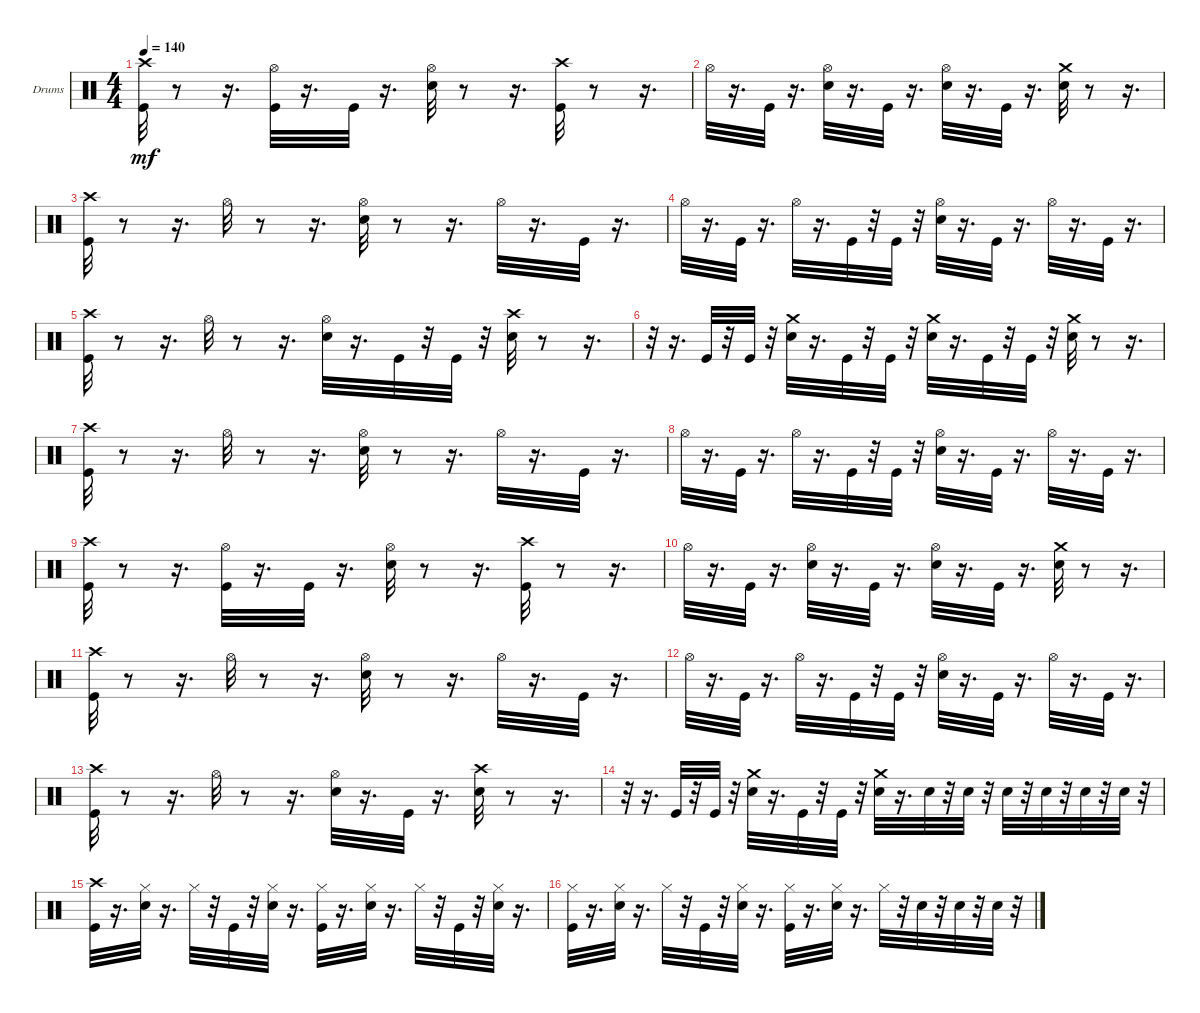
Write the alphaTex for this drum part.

\bracketExtendMode groupsimilarinstruments
\firstSystemTrackNameOrientation horizontal
\otherSystemsTrackNameOrientation horizontal
\track ("" "Drums") {instrument percussion}
\staff {score}
\articulation defaults
\ts (4 4)
\tempo 140
\clef neutral
\ks c
("Crash high (hit)" "Kick (hit)").32{dy mf} r.8 r.16{d} ("Kick (hit)" "Hi-Hat (open)").32 r.16{d} "Kick (hit)".32 r.16{d} ("Hi-Hat (open)" "Snare (hit) 2").32 r.8 r.16{d} ("Crash high (hit)" "Kick (hit)").32 r.8 r.16{d} |
"Hi-Hat (open)".32 r.16{d} "Kick (hit)".32 r.16{d} ("Snare (hit) 2" "Hi-Hat (open)").32 r.16{d} "Kick (hit)".32 r.16{d} ("Hi-Hat (open)" "Snare (hit) 2").32 r.16{d} "Kick (hit)".32 r.16{d} ("Crash medium (hit)" "Snare (hit) 2").32 r.8 r.16{d} |
("Crash high (hit)" "Kick (hit)").32 r.8 r.16{d} "Hi-Hat (open)".32 r.8 r.16{d} ("Hi-Hat (open)" "Snare (hit) 2").32 r.8 r.16{d} "Hi-Hat (open)".32 r.16{d} "Kick (hit)".32 r.16{d} |
"Hi-Hat (open)".32 r.16{d} "Kick (hit)".32 r.16{d} "Hi-Hat (open)".32 r.16{d} "Kick (hit)".32 r.32 "Kick (hit)".32 r.32 ("Hi-Hat (open)" "Snare (hit) 2").32 r.16{d} "Kick (hit)".32 r.16{d} "Hi-Hat (open)".32 r.16{d} "Kick (hit)".32 r.16{d} |
("Crash high (hit)" "Kick (hit)").32 r.8 r.16{d} "Hi-Hat (open)".32 r.8 r.16{d} ("Hi-Hat (open)" "Snare (hit) 2").32 r.16{d} "Kick (hit)".32 r.32 "Kick (hit)".32 r.32 ("Crash high (hit)" "Snare (hit) 2").32 r.8 r.16{d} |
r.32 r.16{d} "Kick (hit)".32 r.32 "Kick (hit)".32 r.32 ("Crash medium (hit)" "Snare (hit) 2").32 r.16{d} "Kick (hit)".32 r.32 "Kick (hit)".32 r.32 ("Crash medium (hit)" "Snare (hit) 2").32 r.16{d} "Kick (hit)".32 r.32 "Kick (hit)".32 r.32 ("Crash medium (hit)" "Snare (hit) 2").32 r.8 r.16{d} |
("Crash high (hit)" "Kick (hit)").32 r.8 r.16{d} "Hi-Hat (open)".32 r.8 r.16{d} ("Hi-Hat (open)" "Snare (hit) 2").32 r.8 r.16{d} "Hi-Hat (open)".32 r.16{d} "Kick (hit)".32 r.16{d} |
"Hi-Hat (open)".32 r.16{d} "Kick (hit)".32 r.16{d} "Hi-Hat (open)".32 r.16{d} "Kick (hit)".32 r.32 "Kick (hit)".32 r.32 ("Hi-Hat (open)" "Snare (hit) 2").32 r.16{d} "Kick (hit)".32 r.16{d} "Hi-Hat (open)".32 r.16{d} "Kick (hit)".32 r.16{d} |
("Crash high (hit)" "Kick (hit)").32 r.8 r.16{d} ("Kick (hit)" "Hi-Hat (open)").32 r.16{d} "Kick (hit)".32 r.16{d} ("Hi-Hat (open)" "Snare (hit) 2").32 r.8 r.16{d} ("Crash high (hit)" "Kick (hit)").32 r.8 r.16{d} |
"Hi-Hat (open)".32 r.16{d} "Kick (hit)".32 r.16{d} ("Snare (hit) 2" "Hi-Hat (open)").32 r.16{d} "Kick (hit)".32 r.16{d} ("Hi-Hat (open)" "Snare (hit) 2").32 r.16{d} "Kick (hit)".32 r.16{d} ("Crash medium (hit)" "Snare (hit) 2").32 r.8 r.16{d} |
("Crash high (hit)" "Kick (hit)").32 r.8 r.16{d} "Hi-Hat (open)".32 r.8 r.16{d} ("Hi-Hat (open)" "Snare (hit) 2").32 r.8 r.16{d} "Hi-Hat (open)".32 r.16{d} "Kick (hit)".32 r.16{d} |
"Hi-Hat (open)".32 r.16{d} "Kick (hit)".32 r.16{d} "Hi-Hat (open)".32 r.16{d} "Kick (hit)".32 r.32 "Kick (hit)".32 r.32 ("Hi-Hat (open)" "Snare (hit) 2").32 r.16{d} "Kick (hit)".32 r.16{d} "Hi-Hat (open)".32 r.16{d} "Kick (hit)".32 r.16{d} |
("Crash high (hit)" "Kick (hit)").32 r.8 r.16{d} "Hi-Hat (open)".32 r.8 r.16{d} ("Hi-Hat (open)" "Snare (hit) 2").32 r.16{d} "Kick (hit)".32 r.16{d} ("Crash high (hit)" "Snare (hit) 2").32 r.8 r.16{d} |
r.32 r.16{d} "Kick (hit)".32 r.32 "Kick (hit)".32 r.32 ("Crash medium (hit)" "Snare (hit) 2").32 r.16{d} "Kick (hit)".32 r.32 "Kick (hit)".32 r.32 ("Crash medium (hit)" "Snare (hit) 2").32 r.16{d} "Snare (hit) 2".32 r.32 "Snare (hit) 2".32 r.32 "Snare (hit) 2".32 r.32 "Snare (hit) 2".32 r.32 "Snare (hit) 2".32 r.32 "Snare (hit) 2".32 r.32 |
("Crash high (hit)" "Kick (hit)").32 r.16{d} ("Snare (hit) 2" "Hi-Hat (closed)").32 r.16{d} "Hi-Hat (closed)".32 r.32 "Kick (hit)".32 r.32 ("Snare (hit) 2" "Hi-Hat (closed)").32 r.16{d} ("Kick (hit)" "Hi-Hat (closed)").32 r.16{d} ("Snare (hit) 2" "Hi-Hat (closed)").32 r.16{d} "Hi-Hat (closed)".32 r.32 "Kick (hit)".32 r.32 ("Snare (hit) 2" "Hi-Hat (closed)").32 r.16{d} |
("Kick (hit)" "Hi-Hat (closed)").32 r.16{d} ("Snare (hit) 2" "Hi-Hat (closed)").32 r.16{d} "Hi-Hat (closed)".32 r.32 "Kick (hit)".32 r.32 ("Snare (hit) 2" "Hi-Hat (closed)").32 r.16{d} ("Kick (hit)" "Hi-Hat (closed)").32 r.16{d} ("Snare (hit) 2" "Hi-Hat (closed)").32 r.16{d} "Hi-Hat (closed)".32 r.32 "Snare (hit) 2".32 r.32 "Snare (hit) 2".32 r.32 "Snare (hit) 2".32 r.32
